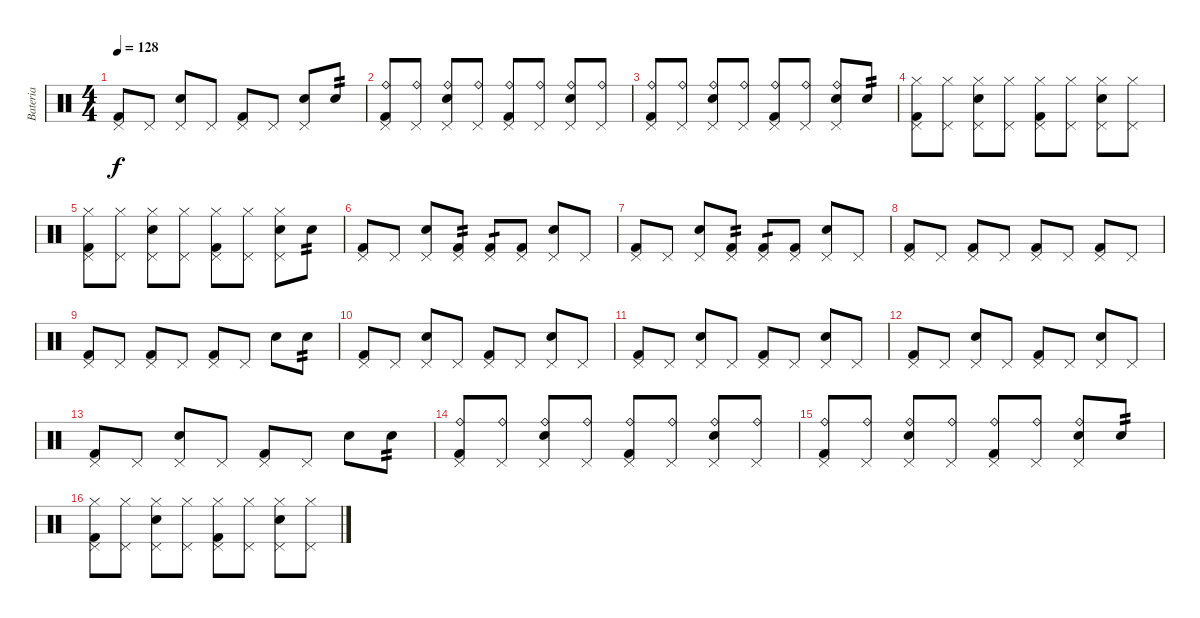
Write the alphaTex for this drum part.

\track ("Bateria" "Bateria") {instrument percussion}
\staff {score}
\articulation defaults
\ts (4 4)
\tempo 128
\clef neutral
\ks c
("Pedal Hi-Hat (hit)" "Kick (hit) 2").8{dy f} "Pedal Hi-Hat (hit)".8 ("Pedal Hi-Hat (hit)" "Electric Snare (hit)").8 "Pedal Hi-Hat (hit)".8 ("Pedal Hi-Hat (hit)" "Kick (hit) 2").8 "Pedal Hi-Hat (hit)".8 ("Pedal Hi-Hat (hit)" "Electric Snare (hit)").8 "Electric Snare (hit)".8{tp 2} |
("Pedal Hi-Hat (hit)" "Kick (hit) 2" "Ride (bell)").8 ("Pedal Hi-Hat (hit)" "Ride (bell)").8 ("Pedal Hi-Hat (hit)" "Electric Snare (hit)" "Ride (bell)").8 ("Pedal Hi-Hat (hit)" "Ride (bell)").8 ("Pedal Hi-Hat (hit)" "Kick (hit) 2" "Ride (bell)").8 ("Pedal Hi-Hat (hit)" "Ride (bell)").8 ("Pedal Hi-Hat (hit)" "Electric Snare (hit)" "Ride (bell)").8 ("Pedal Hi-Hat (hit)" "Ride (bell)").8 |
("Pedal Hi-Hat (hit)" "Kick (hit) 2" "Ride (bell)").8 ("Pedal Hi-Hat (hit)" "Ride (bell)").8 ("Pedal Hi-Hat (hit)" "Electric Snare (hit)" "Ride (bell)").8 ("Pedal Hi-Hat (hit)" "Ride (bell)").8 ("Pedal Hi-Hat (hit)" "Kick (hit) 2" "Ride (bell)").8 ("Pedal Hi-Hat (hit)" "Ride (bell)").8 ("Pedal Hi-Hat (hit)" "Electric Snare (hit)" "Ride (bell)").8 "Electric Snare (hit)".8{tp 2} |
("Pedal Hi-Hat (hit)" "Kick (hit) 2" "Hi-Hat (closed)").8 ("Pedal Hi-Hat (hit)" "Hi-Hat (closed)").8 ("Pedal Hi-Hat (hit)" "Electric Snare (hit)" "Hi-Hat (closed)").8 ("Pedal Hi-Hat (hit)" "Hi-Hat (closed)").8 ("Pedal Hi-Hat (hit)" "Kick (hit) 2" "Hi-Hat (closed)").8 ("Pedal Hi-Hat (hit)" "Hi-Hat (closed)").8 ("Pedal Hi-Hat (hit)" "Electric Snare (hit)" "Hi-Hat (closed)").8 ("Pedal Hi-Hat (hit)" "Hi-Hat (closed)").8 |
("Pedal Hi-Hat (hit)" "Kick (hit) 2" "Hi-Hat (closed)").8 ("Pedal Hi-Hat (hit)" "Hi-Hat (closed)").8 ("Pedal Hi-Hat (hit)" "Electric Snare (hit)" "Hi-Hat (closed)").8 ("Pedal Hi-Hat (hit)" "Hi-Hat (closed)").8 ("Pedal Hi-Hat (hit)" "Kick (hit) 2" "Hi-Hat (closed)").8 ("Pedal Hi-Hat (hit)" "Hi-Hat (closed)").8 ("Pedal Hi-Hat (hit)" "Electric Snare (hit)" "Hi-Hat (closed)").8 "Electric Snare (hit)".8{tp 2} |
("Pedal Hi-Hat (hit)" "Kick (hit) 2").8 "Pedal Hi-Hat (hit)".8 ("Pedal Hi-Hat (hit)" "Electric Snare (hit)").8 ("Pedal Hi-Hat (hit)" "Kick (hit) 2").8{tp 2} ("Pedal Hi-Hat (hit)" "Kick (hit) 2").8{tp 1} ("Pedal Hi-Hat (hit)" "Kick (hit) 2").8 ("Pedal Hi-Hat (hit)" "Electric Snare (hit)").8 "Pedal Hi-Hat (hit)".8 |
("Pedal Hi-Hat (hit)" "Kick (hit) 2").8 "Pedal Hi-Hat (hit)".8 ("Pedal Hi-Hat (hit)" "Electric Snare (hit)").8 ("Pedal Hi-Hat (hit)" "Kick (hit) 2").8{tp 2} ("Pedal Hi-Hat (hit)" "Kick (hit) 2").8{tp 1} ("Pedal Hi-Hat (hit)" "Kick (hit) 2").8 ("Pedal Hi-Hat (hit)" "Electric Snare (hit)").8 "Pedal Hi-Hat (hit)".8 |
("Pedal Hi-Hat (hit)" "Kick (hit) 2").8 "Pedal Hi-Hat (hit)".8 ("Pedal Hi-Hat (hit)" "Kick (hit) 2").8 "Pedal Hi-Hat (hit)".8 ("Pedal Hi-Hat (hit)" "Kick (hit) 2").8 "Pedal Hi-Hat (hit)".8 ("Pedal Hi-Hat (hit)" "Kick (hit) 2").8 "Pedal Hi-Hat (hit)".8 |
("Pedal Hi-Hat (hit)" "Kick (hit) 2").8 "Pedal Hi-Hat (hit)".8 ("Pedal Hi-Hat (hit)" "Kick (hit) 2").8 "Pedal Hi-Hat (hit)".8 ("Pedal Hi-Hat (hit)" "Kick (hit) 2").8 "Pedal Hi-Hat (hit)".8 "Electric Snare (hit)".8 "Electric Snare (hit)".8{tp 2} |
("Pedal Hi-Hat (hit)" "Kick (hit) 2").8 "Pedal Hi-Hat (hit)".8 ("Pedal Hi-Hat (hit)" "Electric Snare (hit)").8 "Pedal Hi-Hat (hit)".8 ("Pedal Hi-Hat (hit)" "Kick (hit) 2").8 "Pedal Hi-Hat (hit)".8 ("Pedal Hi-Hat (hit)" "Electric Snare (hit)").8 "Pedal Hi-Hat (hit)".8 |
("Pedal Hi-Hat (hit)" "Kick (hit) 2").8 "Pedal Hi-Hat (hit)".8 ("Pedal Hi-Hat (hit)" "Electric Snare (hit)").8 "Pedal Hi-Hat (hit)".8 ("Pedal Hi-Hat (hit)" "Kick (hit) 2").8 "Pedal Hi-Hat (hit)".8 ("Pedal Hi-Hat (hit)" "Electric Snare (hit)").8 "Pedal Hi-Hat (hit)".8 |
("Pedal Hi-Hat (hit)" "Kick (hit) 2").8 "Pedal Hi-Hat (hit)".8 ("Pedal Hi-Hat (hit)" "Electric Snare (hit)").8 "Pedal Hi-Hat (hit)".8 ("Pedal Hi-Hat (hit)" "Kick (hit) 2").8 "Pedal Hi-Hat (hit)".8 ("Pedal Hi-Hat (hit)" "Electric Snare (hit)").8 "Pedal Hi-Hat (hit)".8 |
("Pedal Hi-Hat (hit)" "Kick (hit) 2").8 "Pedal Hi-Hat (hit)".8 ("Pedal Hi-Hat (hit)" "Electric Snare (hit)").8 "Pedal Hi-Hat (hit)".8 ("Pedal Hi-Hat (hit)" "Kick (hit) 2").8 "Pedal Hi-Hat (hit)".8 "Electric Snare (hit)".8 "Electric Snare (hit)".8{tp 2} |
("Pedal Hi-Hat (hit)" "Kick (hit) 2" "Ride (bell)").8 ("Pedal Hi-Hat (hit)" "Ride (bell)").8 ("Pedal Hi-Hat (hit)" "Electric Snare (hit)" "Ride (bell)").8 ("Pedal Hi-Hat (hit)" "Ride (bell)").8 ("Pedal Hi-Hat (hit)" "Kick (hit) 2" "Ride (bell)").8 ("Pedal Hi-Hat (hit)" "Ride (bell)").8 ("Pedal Hi-Hat (hit)" "Electric Snare (hit)" "Ride (bell)").8 ("Pedal Hi-Hat (hit)" "Ride (bell)").8 |
("Pedal Hi-Hat (hit)" "Kick (hit) 2" "Ride (bell)").8 ("Pedal Hi-Hat (hit)" "Ride (bell)").8 ("Pedal Hi-Hat (hit)" "Electric Snare (hit)" "Ride (bell)").8 ("Pedal Hi-Hat (hit)" "Ride (bell)").8 ("Pedal Hi-Hat (hit)" "Kick (hit) 2" "Ride (bell)").8 ("Pedal Hi-Hat (hit)" "Ride (bell)").8 ("Pedal Hi-Hat (hit)" "Electric Snare (hit)" "Ride (bell)").8 "Electric Snare (hit)".8{tp 2} |
("Pedal Hi-Hat (hit)" "Kick (hit) 2" "Hi-Hat (closed)").8 ("Pedal Hi-Hat (hit)" "Hi-Hat (closed)").8 ("Pedal Hi-Hat (hit)" "Electric Snare (hit)" "Hi-Hat (closed)").8 ("Pedal Hi-Hat (hit)" "Hi-Hat (closed)").8 ("Pedal Hi-Hat (hit)" "Kick (hit) 2" "Hi-Hat (closed)").8 ("Pedal Hi-Hat (hit)" "Hi-Hat (closed)").8 ("Pedal Hi-Hat (hit)" "Electric Snare (hit)" "Hi-Hat (closed)").8 ("Pedal Hi-Hat (hit)" "Hi-Hat (closed)").8
